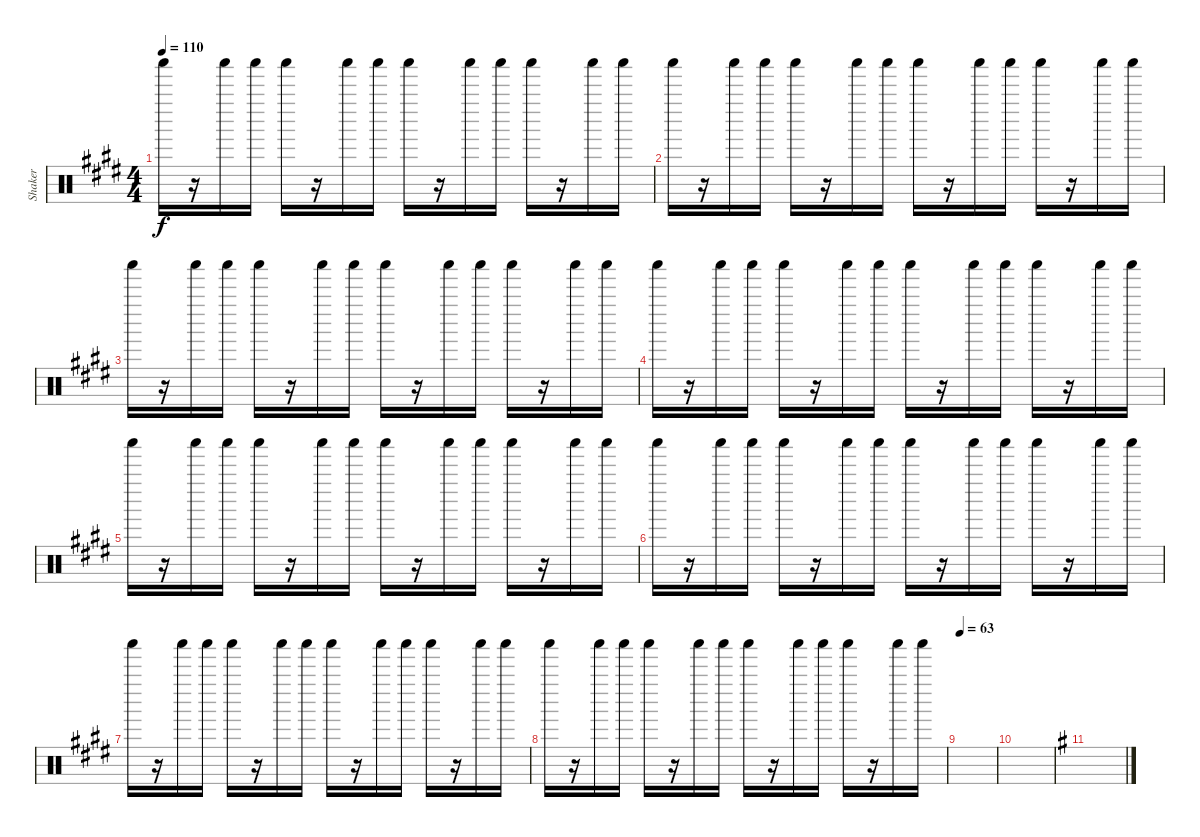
\track ("Shaker" "Shaker") {instrument percussion}
\staff {score}
\articulation defaults
\ts (4 4)
\tempo 110
\clef neutral
\ks e "Shaker (hit)".16{dy f}
r.16 "Shaker (hit)".16 "Shaker (hit)".16 "Shaker (hit)".16 r.16 "Shaker (hit)".16 "Shaker (hit)".16 "Shaker (hit)".16 r.16 "Shaker (hit)".16 "Shaker (hit)".16 "Shaker (hit)".16 r.16 "Shaker (hit)".16 "Shaker (hit)".16 |
"Shaker (hit)".16 r.16 "Shaker (hit)".16 "Shaker (hit)".16 "Shaker (hit)".16 r.16 "Shaker (hit)".16 "Shaker (hit)".16 "Shaker (hit)".16 r.16 "Shaker (hit)".16 "Shaker (hit)".16 "Shaker (hit)".16 r.16 "Shaker (hit)".16 "Shaker (hit)".16 |
"Shaker (hit)".16 r.16 "Shaker (hit)".16 "Shaker (hit)".16 "Shaker (hit)".16 r.16 "Shaker (hit)".16 "Shaker (hit)".16 "Shaker (hit)".16 r.16 "Shaker (hit)".16 "Shaker (hit)".16 "Shaker (hit)".16 r.16 "Shaker (hit)".16 "Shaker (hit)".16 |
"Shaker (hit)".16 r.16 "Shaker (hit)".16 "Shaker (hit)".16 "Shaker (hit)".16 r.16 "Shaker (hit)".16 "Shaker (hit)".16 "Shaker (hit)".16 r.16 "Shaker (hit)".16 "Shaker (hit)".16 "Shaker (hit)".16 r.16 "Shaker (hit)".16 "Shaker (hit)".16 |
"Shaker (hit)".16 r.16 "Shaker (hit)".16 "Shaker (hit)".16 "Shaker (hit)".16 r.16 "Shaker (hit)".16 "Shaker (hit)".16 "Shaker (hit)".16 r.16 "Shaker (hit)".16 "Shaker (hit)".16 "Shaker (hit)".16 r.16 "Shaker (hit)".16 "Shaker (hit)".16 |
"Shaker (hit)".16 r.16 "Shaker (hit)".16 "Shaker (hit)".16 "Shaker (hit)".16 r.16 "Shaker (hit)".16 "Shaker (hit)".16 "Shaker (hit)".16 r.16 "Shaker (hit)".16 "Shaker (hit)".16 "Shaker (hit)".16 r.16 "Shaker (hit)".16 "Shaker (hit)".16 |
"Shaker (hit)".16 r.16 "Shaker (hit)".16 "Shaker (hit)".16 "Shaker (hit)".16 r.16 "Shaker (hit)".16 "Shaker (hit)".16 "Shaker (hit)".16 r.16 "Shaker (hit)".16 "Shaker (hit)".16 "Shaker (hit)".16 r.16 "Shaker (hit)".16 "Shaker (hit)".16 |
"Shaker (hit)".16 r.16 "Shaker (hit)".16 "Shaker (hit)".16 "Shaker (hit)".16 r.16 "Shaker (hit)".16 "Shaker (hit)".16 "Shaker (hit)".16 r.16 "Shaker (hit)".16 "Shaker (hit)".16 "Shaker (hit)".16 r.16 "Shaker (hit)".16 "Shaker (hit)".16 |
\tempo 63
|
|
\ks g
